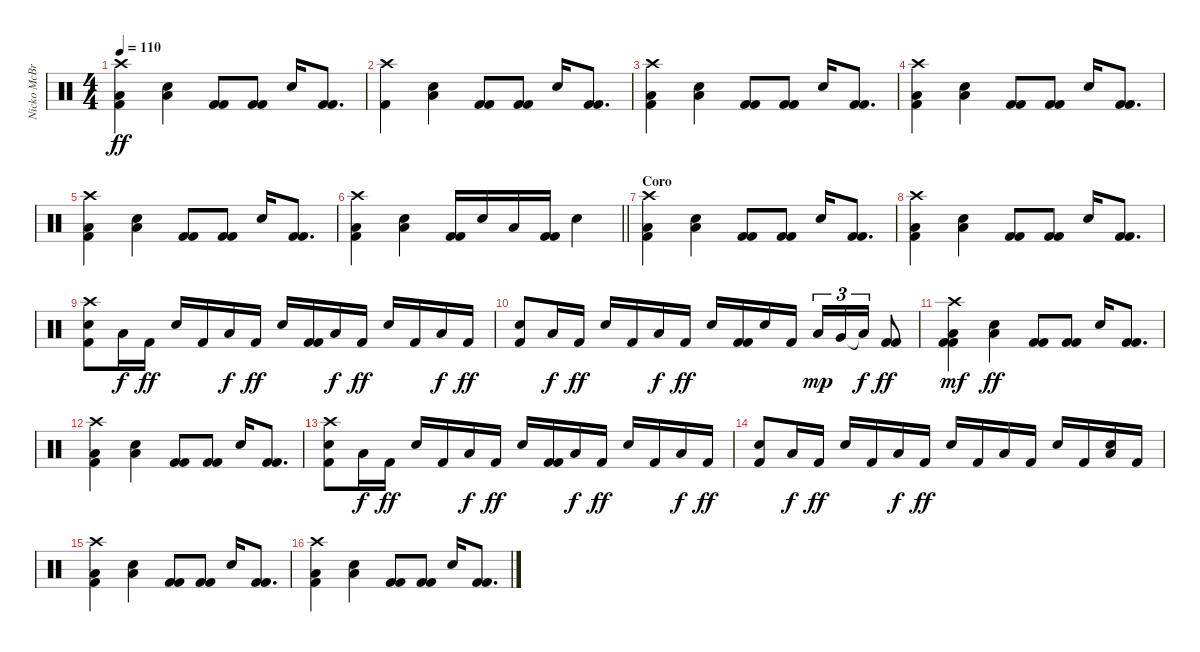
\track ("Nicko McBrain" "Nicko McBr") {instrument percussion}
\staff {score}
\articulation defaults
\ts (4 4)
\tempo 110
\clef neutral
\ks c
("Crash high (hit)" "Low Floor Tom (hit)" "Kick (hit) 2").4{dy ff} ("Snare (hit) 2" "Low Floor Tom (hit)").4 ("Kick (hit) 2" "Kick (hit) 2").8 ("Kick (hit) 2" "Kick (hit) 2").8 "Snare (hit) 2".16 ("Kick (hit) 2" "Kick (hit) 2").8{d} |
("Crash high (hit)" "Kick (hit) 2").4 ("Snare (hit) 2" "Low Floor Tom (hit)").4 ("Kick (hit) 2" "Kick (hit) 2").8 ("Kick (hit) 2" "Kick (hit) 2").8 "Snare (hit) 2".16 ("Kick (hit) 2" "Kick (hit) 2").8{d} |
("Crash high (hit)" "Low Floor Tom (hit)" "Kick (hit) 2").4 ("Snare (hit) 2" "Low Floor Tom (hit)").4 ("Kick (hit) 2" "Kick (hit) 2").8 ("Kick (hit) 2" "Kick (hit) 2").8 "Snare (hit) 2".16 ("Kick (hit) 2" "Kick (hit) 2").8{d} |
("Crash high (hit)" "Low Floor Tom (hit)" "Kick (hit) 2").4 ("Snare (hit) 2" "Low Floor Tom (hit)").4 ("Kick (hit) 2" "Kick (hit) 2").8 ("Kick (hit) 2" "Kick (hit) 2").8 "Snare (hit) 2".16 ("Kick (hit) 2" "Kick (hit) 2").8{d} |
("Crash high (hit)" "Low Floor Tom (hit)" "Kick (hit) 2").4 ("Snare (hit) 2" "Low Floor Tom (hit)").4 ("Kick (hit) 2" "Kick (hit) 2").8 ("Kick (hit) 2" "Kick (hit) 2").8 "Snare (hit) 2".16 ("Kick (hit) 2" "Kick (hit) 2").8{d} |
\barLineRight lightlight
("Crash high (hit)" "Low Floor Tom (hit)" "Kick (hit) 2").4 ("Snare (hit) 2" "Low Floor Tom (hit)").4 ("Kick (hit) 2" "Kick (hit) 2").16 "Snare (hit) 2".16 "Low Floor Tom (hit)".16 ("Kick (hit) 2" "Kick (hit) 2").16 "Snare (hit) 2".4 |
\section ("" "Coro")
("Crash high (hit)" "Low Floor Tom (hit)" "Kick (hit) 2").4 ("Snare (hit) 2" "Low Floor Tom (hit)").4 ("Kick (hit) 2" "Kick (hit) 2").8 ("Kick (hit) 2" "Kick (hit) 2").8 "Snare (hit) 2".16 ("Kick (hit) 2" "Kick (hit) 2").8{d} |
("Crash high (hit)" "Low Floor Tom (hit)" "Kick (hit) 2").4 ("Snare (hit) 2" "Low Floor Tom (hit)").4 ("Kick (hit) 2" "Kick (hit) 2").8 ("Kick (hit) 2" "Kick (hit) 2").8 "Snare (hit) 2".16 ("Kick (hit) 2" "Kick (hit) 2").8{d} |
("Snare (hit) 2" "Kick (hit) 2" "Crash high (hit)").8 "Low Floor Tom (hit)".16{dy f} "Kick (hit) 2".16{dy ff} "Snare (hit) 2".16 "Kick (hit) 2".16 "Low Floor Tom (hit)".16{dy f} "Kick (hit) 2".16{dy ff} "Snare (hit) 2".16 ("Kick (hit) 2" "Kick (hit) 2").16 "Low Floor Tom (hit)".16{dy f} "Kick (hit) 2".16{dy ff} "Snare (hit) 2".16 "Kick (hit) 2".16 "Low Floor Tom (hit)".16{dy f} "Kick (hit) 2".16{dy ff} |
("Snare (hit) 2" "Kick (hit) 2").8 "Low Floor Tom (hit)".16{dy f} "Kick (hit) 2".16{dy ff} "Snare (hit) 2".16 "Kick (hit) 2".16 "Low Floor Tom (hit)".16{dy f} "Kick (hit) 2".16{dy ff} "Snare (hit) 2".16 ("Kick (hit) 2" "Kick (hit) 2").16 "Snare (hit) 2".16 "Kick (hit) 2".16 "Low Tom (hit)".16{tu (3 2) dy mp} "Very Low Tom (hit)".16{tu (3 2)} "Low Tom (hit)"{t}.16{tu (3 2) dy f} ("Kick (hit) 2" "Kick (hit) 2").8{dy ff} |
("Crash high (hit)" "Low Floor Tom (hit)" "Kick (hit) 2" "Kick (hit) 2").4{dy mf} ("Snare (hit) 2" "Low Floor Tom (hit)").4{dy ff} ("Kick (hit) 2" "Kick (hit) 2").8 ("Kick (hit) 2" "Kick (hit) 2").8 "Snare (hit) 2".16 ("Kick (hit) 2" "Kick (hit) 2").8{d} |
("Crash high (hit)" "Low Floor Tom (hit)" "Kick (hit) 2").4 ("Snare (hit) 2" "Low Floor Tom (hit)").4 ("Kick (hit) 2" "Kick (hit) 2").8 ("Kick (hit) 2" "Kick (hit) 2").8 "Snare (hit) 2".16 ("Kick (hit) 2" "Kick (hit) 2").8{d} |
("Snare (hit) 2" "Kick (hit) 2" "Crash high (hit)").8 "Low Floor Tom (hit)".16{dy f} "Kick (hit) 2".16{dy ff} "Snare (hit) 2".16 "Kick (hit) 2".16 "Low Floor Tom (hit)".16{dy f} "Kick (hit) 2".16{dy ff} "Snare (hit) 2".16 ("Kick (hit) 2" "Kick (hit) 2").16 "Low Floor Tom (hit)".16{dy f} "Kick (hit) 2".16{dy ff} "Snare (hit) 2".16 "Kick (hit) 2".16 "Low Floor Tom (hit)".16{dy f} "Kick (hit) 2".16{dy ff} |
("Snare (hit) 2" "Kick (hit) 2").8 "Low Floor Tom (hit)".16{dy f} "Kick (hit) 2".16{dy ff} "Snare (hit) 2".16 "Kick (hit) 2".16 "Low Floor Tom (hit)".16{dy f} "Kick (hit) 2".16{dy ff} "Snare (hit) 2".16 "Kick (hit) 2".16 "Low Floor Tom (hit)".16 "Kick (hit) 2".16 "Snare (hit) 2".16 "Kick (hit) 2".16 ("Snare (hit) 2" "Low Floor Tom (hit)").16 "Kick (hit) 2".16 |
("Crash high (hit)" "Low Floor Tom (hit)" "Kick (hit) 2").4 ("Snare (hit) 2" "Low Floor Tom (hit)").4 ("Kick (hit) 2" "Kick (hit) 2").8 ("Kick (hit) 2" "Kick (hit) 2").8 "Snare (hit) 2".16 ("Kick (hit) 2" "Kick (hit) 2").8{d} |
("Crash high (hit)" "Low Floor Tom (hit)" "Kick (hit) 2").4 ("Snare (hit) 2" "Low Floor Tom (hit)").4 ("Kick (hit) 2" "Kick (hit) 2").8 ("Kick (hit) 2" "Kick (hit) 2").8 "Snare (hit) 2".16 ("Kick (hit) 2" "Kick (hit) 2").8{d}
